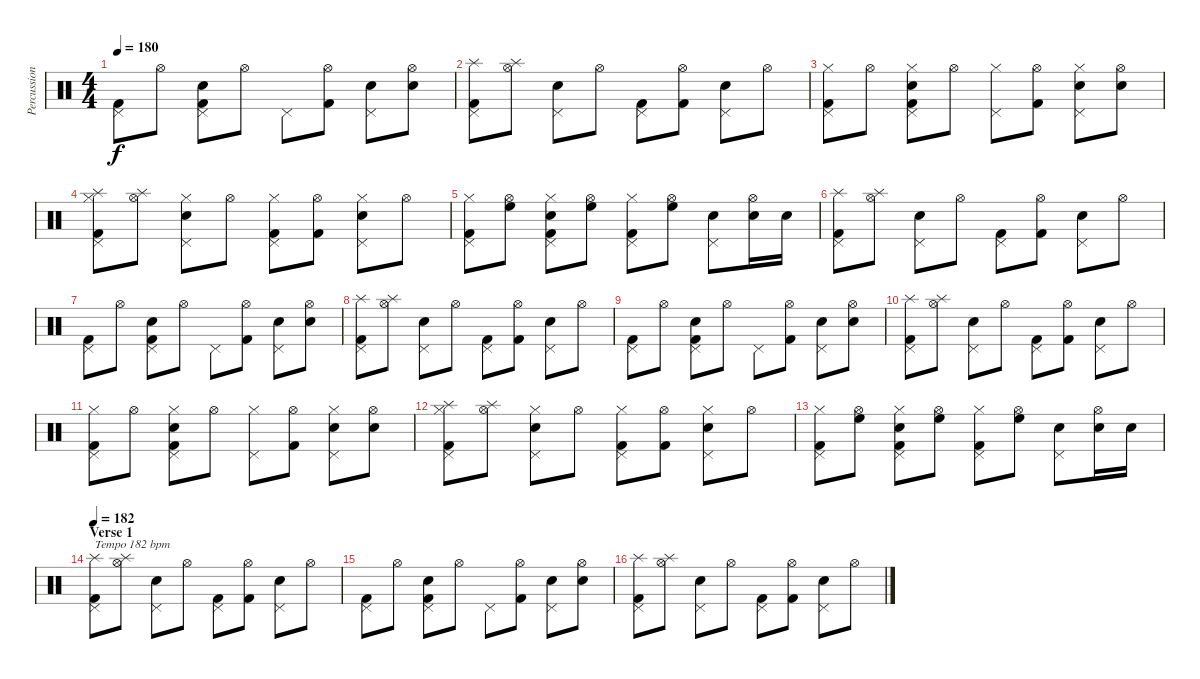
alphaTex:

\track ("Percussion" "Percussion") {instrument percussion}
\staff {score}
\articulation defaults
\ts (4 4)
\tempo 180
\clef neutral
\ks c
("Pedal Hi-Hat (hit)" "Kick (hit) 2").8{dy f} "Hi-Hat (open)".8 ("Pedal Hi-Hat (hit)" "Snare (hit) 2" "Kick (hit) 2").8 "Hi-Hat (open)".8 "Pedal Hi-Hat (hit)".8 ("Hi-Hat (open)" "Kick (hit) 2").8 ("Pedal Hi-Hat (hit)" "Snare (hit) 2").8 ("Hi-Hat (open)" "Snare (hit) 2").8 |
("Pedal Hi-Hat (hit)" "Splash (hit)" "Kick (hit) 2").8 ("Hi-Hat (open)" "Splash (hit)").8 ("Pedal Hi-Hat (hit)" "Snare (hit) 2").8 "Hi-Hat (open)".8 ("Pedal Hi-Hat (hit)" "Kick (hit) 2").8 ("Hi-Hat (open)" "Kick (hit) 2").8 ("Pedal Hi-Hat (hit)" "Snare (hit) 2").8 "Hi-Hat (open)".8 |
("Pedal Hi-Hat (hit)" "Hi-Hat (closed)" "Kick (hit) 2").8 "Hi-Hat (open)".8 ("Pedal Hi-Hat (hit)" "Hi-Hat (closed)" "Snare (hit) 2" "Kick (hit) 2").8 "Hi-Hat (open)".8 ("Pedal Hi-Hat (hit)" "Hi-Hat (closed)").8 ("Hi-Hat (open)" "Kick (hit) 2").8 ("Pedal Hi-Hat (hit)" "Hi-Hat (closed)" "Snare (hit) 2").8 ("Hi-Hat (open)" "Snare (hit) 2").8 |
("Pedal Hi-Hat (hit)" "Hi-Hat (closed)" "Splash (hit)" "Kick (hit) 2").8 ("Hi-Hat (open)" "Splash (hit)").8 ("Pedal Hi-Hat (hit)" "Hi-Hat (closed)" "Snare (hit) 2").8 "Hi-Hat (open)".8 ("Pedal Hi-Hat (hit)" "Hi-Hat (closed)" "Kick (hit) 2").8 ("Hi-Hat (open)" "Kick (hit) 2").8 ("Pedal Hi-Hat (hit)" "Hi-Hat (closed)" "Snare (hit) 2").8 "Hi-Hat (open)".8 |
("Pedal Hi-Hat (hit)" "Hi-Hat (closed)" "Kick (hit) 2").8 ("Hi-Hat (open)" "High Floor Tom (hit)").8 ("Pedal Hi-Hat (hit)" "Hi-Hat (closed)" "Snare (hit) 2" "Kick (hit) 2").8 ("Hi-Hat (open)" "High Floor Tom (hit)").8 ("Pedal Hi-Hat (hit)" "Hi-Hat (closed)" "Kick (hit) 2").8 ("Hi-Hat (open)" "High Floor Tom (hit)").8 ("Pedal Hi-Hat (hit)" "Snare (hit) 2").8 ("Hi-Hat (open)" "Snare (hit) 2").16 "Snare (hit) 2".16 |
("Pedal Hi-Hat (hit)" "Splash (hit)" "Kick (hit) 2").8 ("Hi-Hat (open)" "Splash (hit)").8 ("Pedal Hi-Hat (hit)" "Snare (hit) 2").8 "Hi-Hat (open)".8 ("Pedal Hi-Hat (hit)" "Kick (hit) 2").8 ("Hi-Hat (open)" "Kick (hit) 2").8 ("Pedal Hi-Hat (hit)" "Snare (hit) 2").8 "Hi-Hat (open)".8 |
("Pedal Hi-Hat (hit)" "Kick (hit) 2").8 "Hi-Hat (open)".8 ("Pedal Hi-Hat (hit)" "Snare (hit) 2" "Kick (hit) 2").8 "Hi-Hat (open)".8 "Pedal Hi-Hat (hit)".8 ("Hi-Hat (open)" "Kick (hit) 2").8 ("Pedal Hi-Hat (hit)" "Snare (hit) 2").8 ("Hi-Hat (open)" "Snare (hit) 2").8 |
("Pedal Hi-Hat (hit)" "Splash (hit)" "Kick (hit) 2").8 ("Hi-Hat (open)" "Splash (hit)").8 ("Pedal Hi-Hat (hit)" "Snare (hit) 2").8 "Hi-Hat (open)".8 ("Pedal Hi-Hat (hit)" "Kick (hit) 2").8 ("Hi-Hat (open)" "Kick (hit) 2").8 ("Pedal Hi-Hat (hit)" "Snare (hit) 2").8 "Hi-Hat (open)".8 |
("Pedal Hi-Hat (hit)" "Kick (hit) 2").8 "Hi-Hat (open)".8 ("Pedal Hi-Hat (hit)" "Snare (hit) 2" "Kick (hit) 2").8 "Hi-Hat (open)".8 "Pedal Hi-Hat (hit)".8 ("Hi-Hat (open)" "Kick (hit) 2").8 ("Pedal Hi-Hat (hit)" "Snare (hit) 2").8 ("Hi-Hat (open)" "Snare (hit) 2").8 |
("Pedal Hi-Hat (hit)" "Splash (hit)" "Kick (hit) 2").8 ("Hi-Hat (open)" "Splash (hit)").8 ("Pedal Hi-Hat (hit)" "Snare (hit) 2").8 "Hi-Hat (open)".8 ("Pedal Hi-Hat (hit)" "Kick (hit) 2").8 ("Hi-Hat (open)" "Kick (hit) 2").8 ("Pedal Hi-Hat (hit)" "Snare (hit) 2").8 "Hi-Hat (open)".8 |
("Pedal Hi-Hat (hit)" "Hi-Hat (closed)" "Kick (hit) 2").8 "Hi-Hat (open)".8 ("Pedal Hi-Hat (hit)" "Hi-Hat (closed)" "Snare (hit) 2" "Kick (hit) 2").8 "Hi-Hat (open)".8 ("Pedal Hi-Hat (hit)" "Hi-Hat (closed)").8 ("Hi-Hat (open)" "Kick (hit) 2").8 ("Pedal Hi-Hat (hit)" "Hi-Hat (closed)" "Snare (hit) 2").8 ("Hi-Hat (open)" "Snare (hit) 2").8 |
("Pedal Hi-Hat (hit)" "Hi-Hat (closed)" "Splash (hit)" "Kick (hit) 2").8 ("Hi-Hat (open)" "Splash (hit)").8 ("Pedal Hi-Hat (hit)" "Hi-Hat (closed)" "Snare (hit) 2").8 "Hi-Hat (open)".8 ("Pedal Hi-Hat (hit)" "Hi-Hat (closed)" "Kick (hit) 2").8 ("Hi-Hat (open)" "Kick (hit) 2").8 ("Pedal Hi-Hat (hit)" "Hi-Hat (closed)" "Snare (hit) 2").8 "Hi-Hat (open)".8 |
("Pedal Hi-Hat (hit)" "Hi-Hat (closed)" "Kick (hit) 2").8 ("Hi-Hat (open)" "High Floor Tom (hit)").8 ("Pedal Hi-Hat (hit)" "Hi-Hat (closed)" "Snare (hit) 2" "Kick (hit) 2").8 ("Hi-Hat (open)" "High Floor Tom (hit)").8 ("Pedal Hi-Hat (hit)" "Hi-Hat (closed)" "Kick (hit) 2").8 ("Hi-Hat (open)" "High Floor Tom (hit)").8 ("Pedal Hi-Hat (hit)" "Snare (hit) 2").8 ("Hi-Hat (open)" "Snare (hit) 2").16 "Snare (hit) 2".16 |
\section ("" "Verse 1")
\tempo 182
("Pedal Hi-Hat (hit)" "Splash (hit)" "Kick (hit) 2").8{txt "Tempo 182 bpm"} ("Hi-Hat (open)" "Splash (hit)").8 ("Pedal Hi-Hat (hit)" "Snare (hit) 2").8 "Hi-Hat (open)".8 ("Pedal Hi-Hat (hit)" "Kick (hit) 2").8 ("Hi-Hat (open)" "Kick (hit) 2").8 ("Pedal Hi-Hat (hit)" "Snare (hit) 2").8 "Hi-Hat (open)".8 |
("Pedal Hi-Hat (hit)" "Kick (hit) 2").8 "Hi-Hat (open)".8 ("Pedal Hi-Hat (hit)" "Snare (hit) 2" "Kick (hit) 2").8 "Hi-Hat (open)".8 "Pedal Hi-Hat (hit)".8 ("Hi-Hat (open)" "Kick (hit) 2").8 ("Pedal Hi-Hat (hit)" "Snare (hit) 2").8 ("Hi-Hat (open)" "Snare (hit) 2").8 |
("Pedal Hi-Hat (hit)" "Splash (hit)" "Kick (hit) 2").8 ("Hi-Hat (open)" "Splash (hit)").8 ("Pedal Hi-Hat (hit)" "Snare (hit) 2").8 "Hi-Hat (open)".8 ("Pedal Hi-Hat (hit)" "Kick (hit) 2").8 ("Hi-Hat (open)" "Kick (hit) 2").8 ("Pedal Hi-Hat (hit)" "Snare (hit) 2").8 "Hi-Hat (open)".8
